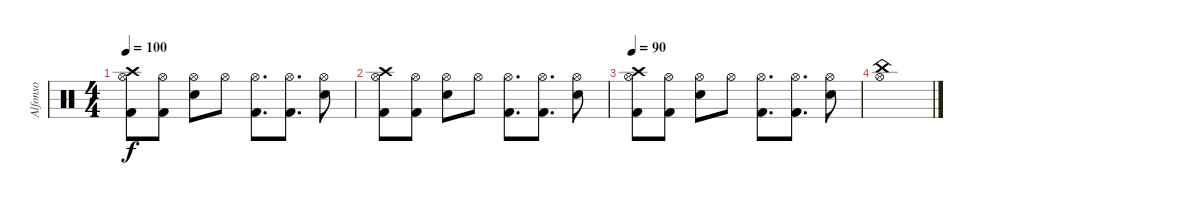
\track ("Alfonso" "Alfonso") {instrument percussion}
\staff {score}
\articulation defaults
\ts (4 4)
\tempo 100
\clef neutral
\ks c
("Hi-Hat (open)" "Kick (hit) 2" "Crash high (hit)").8{dy f} ("Hi-Hat (open)" "Kick (hit) 2").8 ("Hi-Hat (open)" "Snare (hit) 2").8 "Hi-Hat (open)".8 ("Hi-Hat (open)" "Kick (hit) 2").8{d} ("Hi-Hat (open)" "Kick (hit) 2").8{d} ("Hi-Hat (open)" "Snare (hit) 2").8 |
("Hi-Hat (open)" "Kick (hit) 2" "Crash high (hit)").8 ("Hi-Hat (open)" "Kick (hit) 2").8 ("Hi-Hat (open)" "Snare (hit) 2").8 "Hi-Hat (open)".8 ("Hi-Hat (open)" "Kick (hit) 2").8{d} ("Hi-Hat (open)" "Kick (hit) 2").8{d} ("Hi-Hat (open)" "Snare (hit) 2").8 |
\tempo 90
("Hi-Hat (open)" "Kick (hit) 2" "Crash high (hit)").8 ("Hi-Hat (open)" "Kick (hit) 2").8 ("Hi-Hat (open)" "Snare (hit) 2").8 "Hi-Hat (open)".8 ("Hi-Hat (open)" "Kick (hit) 2").8{d} ("Hi-Hat (open)" "Kick (hit) 2").8{d} ("Hi-Hat (open)" "Snare (hit) 2").8 |
("Hi-Hat (open)" "China (hit)").1
